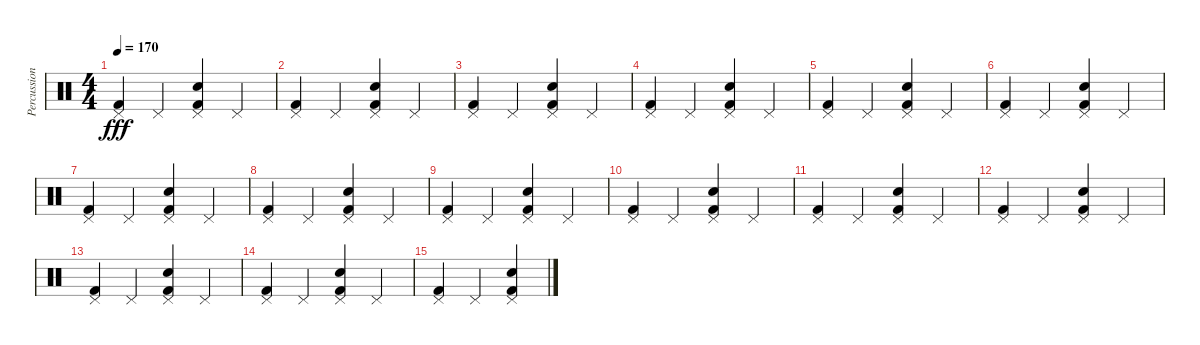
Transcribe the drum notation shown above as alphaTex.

\track ("Percussion" "Percussion") {instrument percussion}
\staff {score}
\articulation defaults
\ts (4 4)
\tempo 170
\clef neutral
\ks c
("Pedal Hi-Hat (hit)" "Kick (hit) 2").4{dy fff} "Pedal Hi-Hat (hit)".4 ("Pedal Hi-Hat (hit)" "Snare (hit) 2" "Kick (hit) 2").4 "Pedal Hi-Hat (hit)".4 |
("Pedal Hi-Hat (hit)" "Kick (hit) 2").4 "Pedal Hi-Hat (hit)".4 ("Snare (hit) 2" "Pedal Hi-Hat (hit)" "Kick (hit) 2").4 "Pedal Hi-Hat (hit)".4 |
("Pedal Hi-Hat (hit)" "Kick (hit) 2").4 "Pedal Hi-Hat (hit)".4 ("Pedal Hi-Hat (hit)" "Snare (hit) 2" "Kick (hit) 2").4 "Pedal Hi-Hat (hit)".4 |
("Pedal Hi-Hat (hit)" "Kick (hit) 2").4 "Pedal Hi-Hat (hit)".4 ("Snare (hit) 2" "Pedal Hi-Hat (hit)" "Kick (hit) 2").4 "Pedal Hi-Hat (hit)".4 |
("Pedal Hi-Hat (hit)" "Kick (hit) 2").4 "Pedal Hi-Hat (hit)".4 ("Pedal Hi-Hat (hit)" "Snare (hit) 2" "Kick (hit) 2").4 "Pedal Hi-Hat (hit)".4 |
("Pedal Hi-Hat (hit)" "Kick (hit) 2").4 "Pedal Hi-Hat (hit)".4 ("Snare (hit) 2" "Pedal Hi-Hat (hit)" "Kick (hit) 2").4 "Pedal Hi-Hat (hit)".4 |
("Pedal Hi-Hat (hit)" "Kick (hit) 2").4 "Pedal Hi-Hat (hit)".4 ("Pedal Hi-Hat (hit)" "Snare (hit) 2" "Kick (hit) 2").4 "Pedal Hi-Hat (hit)".4 |
("Pedal Hi-Hat (hit)" "Kick (hit) 2").4 "Pedal Hi-Hat (hit)".4 ("Snare (hit) 2" "Pedal Hi-Hat (hit)" "Kick (hit) 2").4 "Pedal Hi-Hat (hit)".4 |
("Pedal Hi-Hat (hit)" "Kick (hit) 2").4 "Pedal Hi-Hat (hit)".4 ("Pedal Hi-Hat (hit)" "Snare (hit) 2" "Kick (hit) 2").4 "Pedal Hi-Hat (hit)".4 |
("Pedal Hi-Hat (hit)" "Kick (hit) 2").4 "Pedal Hi-Hat (hit)".4 ("Snare (hit) 2" "Pedal Hi-Hat (hit)" "Kick (hit) 2").4 "Pedal Hi-Hat (hit)".4 |
("Pedal Hi-Hat (hit)" "Kick (hit) 2").4 "Pedal Hi-Hat (hit)".4 ("Pedal Hi-Hat (hit)" "Snare (hit) 2" "Kick (hit) 2").4 "Pedal Hi-Hat (hit)".4 |
("Pedal Hi-Hat (hit)" "Kick (hit) 2").4 "Pedal Hi-Hat (hit)".4 ("Snare (hit) 2" "Pedal Hi-Hat (hit)" "Kick (hit) 2").4 "Pedal Hi-Hat (hit)".4 |
("Pedal Hi-Hat (hit)" "Kick (hit) 2").4 "Pedal Hi-Hat (hit)".4 ("Snare (hit) 2" "Pedal Hi-Hat (hit)" "Kick (hit) 2").4 "Pedal Hi-Hat (hit)".4 |
("Pedal Hi-Hat (hit)" "Kick (hit) 2").4 "Pedal Hi-Hat (hit)".4 ("Pedal Hi-Hat (hit)" "Snare (hit) 2" "Kick (hit) 2").4 "Pedal Hi-Hat (hit)".4 |
("Pedal Hi-Hat (hit)" "Kick (hit) 2").4 "Pedal Hi-Hat (hit)".4 ("Snare (hit) 2" "Pedal Hi-Hat (hit)" "Kick (hit) 2").4
